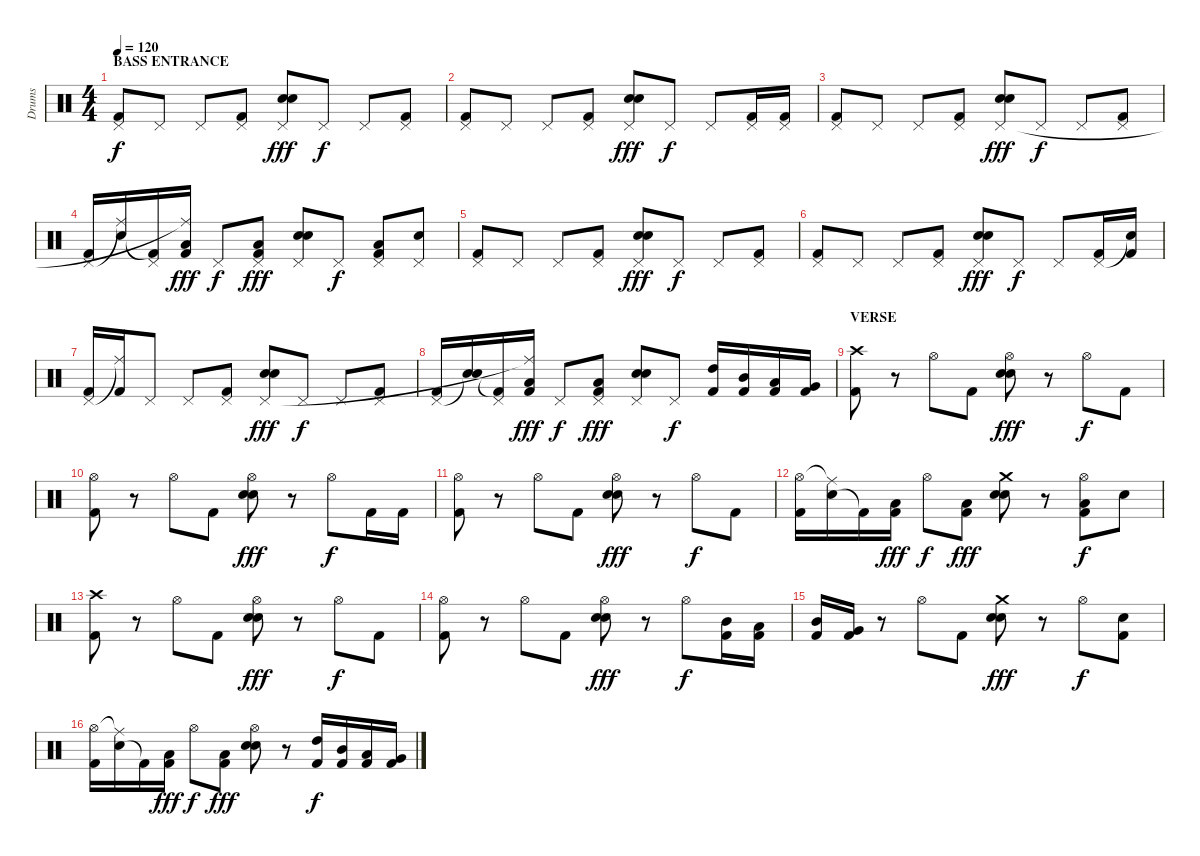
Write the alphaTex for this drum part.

\track ("Drums" "Drums") {instrument percussion}
\staff {score}
\articulation defaults
\ts (4 4)
\section ("" "BASS ENTRANCE")
\tempo 120
\clef neutral
\ks c
("Kick (hit) 2" "Pedal Hi-Hat (hit)").8{dy f} "Pedal Hi-Hat (hit)".8 "Pedal Hi-Hat (hit)".8 ("Kick (hit) 2" "Pedal Hi-Hat (hit)").8 ("Electric Snare (hit)" "Electric Snare (hit)" "Pedal Hi-Hat (hit)").8{dy fff} "Pedal Hi-Hat (hit)".8{dy f} "Pedal Hi-Hat (hit)".8 ("Kick (hit) 2" "Pedal Hi-Hat (hit)").8 |
("Kick (hit) 2" "Pedal Hi-Hat (hit)").8 "Pedal Hi-Hat (hit)".8 "Pedal Hi-Hat (hit)".8 ("Kick (hit) 2" "Pedal Hi-Hat (hit)").8 ("Electric Snare (hit)" "Electric Snare (hit)" "Pedal Hi-Hat (hit)").8{dy fff} "Pedal Hi-Hat (hit)".8{dy f} "Pedal Hi-Hat (hit)".8 ("Kick (hit) 2" "Pedal Hi-Hat (hit)").16 ("Kick (hit) 2" "Pedal Hi-Hat (hit)").16 |
("Kick (hit) 2" "Pedal Hi-Hat (hit)").8 "Pedal Hi-Hat (hit)".8 "Pedal Hi-Hat (hit)".8 ("Kick (hit) 2" "Pedal Hi-Hat (hit)").8 ("Electric Snare (hit)" "Electric Snare (hit)" "Pedal Hi-Hat (hit)").8{dy fff} "Pedal Hi-Hat (hit)".8{dy f} "Pedal Hi-Hat (hit)".8 ("Kick (hit) 2" "Pedal Hi-Hat (hit)").8 |
("Kick (hit) 2" "Pedal Hi-Hat (hit)").16 ("Electric Snare (hit)" "Ride (middle)"{t}).16 ("Kick (hit) 2"{t} "Pedal Hi-Hat (hit)").16 ("Low Floor Tom (hit)" "Kick (hit) 2" "Ride (middle)"{t}).16{dy fff} "Pedal Hi-Hat (hit)".8{dy f} ("Low Floor Tom (hit)" "Kick (hit) 2" "Pedal Hi-Hat (hit)").8{dy fff} ("Electric Snare (hit)" "Electric Snare (hit)" "Pedal Hi-Hat (hit)").8 "Pedal Hi-Hat (hit)".8{dy f} ("Low Floor Tom (hit)" "Kick (hit) 2" "Pedal Hi-Hat (hit)").8 ("Electric Snare (hit)" "Pedal Hi-Hat (hit)").8 |
("Kick (hit) 2" "Pedal Hi-Hat (hit)").8 "Pedal Hi-Hat (hit)".8 "Pedal Hi-Hat (hit)".8 ("Kick (hit) 2" "Pedal Hi-Hat (hit)").8 ("Electric Snare (hit)" "Electric Snare (hit)" "Pedal Hi-Hat (hit)").8{dy fff} "Pedal Hi-Hat (hit)".8{dy f} "Pedal Hi-Hat (hit)".8 ("Kick (hit) 2" "Pedal Hi-Hat (hit)").8 |
("Kick (hit) 2" "Pedal Hi-Hat (hit)").8 "Pedal Hi-Hat (hit)".8 "Pedal Hi-Hat (hit)".8 ("Kick (hit) 2" "Pedal Hi-Hat (hit)").8 ("Electric Snare (hit)" "Electric Snare (hit)" "Pedal Hi-Hat (hit)").8{dy fff} "Pedal Hi-Hat (hit)".8{dy f} "Pedal Hi-Hat (hit)".8 ("Kick (hit) 2" "Pedal Hi-Hat (hit)").16 ("Kick (hit) 2" "Snare (hit)"{t}).16 |
("Kick (hit) 2" "Pedal Hi-Hat (hit)").16 ("Kick (hit) 2" "Ride (middle)"{t}).16 "Pedal Hi-Hat (hit)".8 "Pedal Hi-Hat (hit)".8 ("Kick (hit) 2" "Pedal Hi-Hat (hit)").8 ("Electric Snare (hit)" "Electric Snare (hit)" "Pedal Hi-Hat (hit)").8{dy fff} "Pedal Hi-Hat (hit)".8{dy f} "Pedal Hi-Hat (hit)".8 ("Kick (hit) 2" "Pedal Hi-Hat (hit)").8 |
("Kick (hit) 2" "Pedal Hi-Hat (hit)").16 ("Electric Snare (hit)" "Snare (hit)"{t}).16 ("Kick (hit) 2"{t} "Pedal Hi-Hat (hit)").16 ("Low Floor Tom (hit)" "Kick (hit) 2" "Ride (middle)"{t}).16{dy fff} "Pedal Hi-Hat (hit)".8{dy f} ("Low Floor Tom (hit)" "Kick (hit) 2" "Pedal Hi-Hat (hit)").8{dy fff} ("Electric Snare (hit)" "Electric Snare (hit)" "Pedal Hi-Hat (hit)").8 "Pedal Hi-Hat (hit)".8{dy f} ("High Tom (hit)" "Kick (hit) 2").16 ("Mid Tom (hit)" "Kick (hit) 2").16 ("Low Tom (hit)" "Kick (hit) 2").16 ("Very Low Tom (hit)" "Kick (hit) 2").16 |
\section ("" "VERSE")
("Kick (hit) 2" "Crash high (hit)").8 r.8 "Hi-Hat (open)".8 "Kick (hit) 2".8 ("Electric Snare (hit)" "Electric Snare (hit)" "Hi-Hat (open)").8{dy fff} r.8 "Hi-Hat (open)".8{dy f} "Kick (hit) 2".8 |
("Kick (hit) 2" "Hi-Hat (open)").8 r.8 "Hi-Hat (open)".8 "Kick (hit) 2".8 ("Electric Snare (hit)" "Electric Snare (hit)" "Hi-Hat (open)").8{dy fff} r.8 "Hi-Hat (open)".8{dy f} "Kick (hit) 2".16 "Kick (hit) 2".16 |
("Kick (hit) 2" "Hi-Hat (open)").8 r.8 "Hi-Hat (open)".8 "Kick (hit) 2".8 ("Electric Snare (hit)" "Electric Snare (hit)" "Hi-Hat (open)").8{dy fff} r.8 "Hi-Hat (open)".8{dy f} "Kick (hit) 2".8 |
("Kick (hit) 2" "Hi-Hat (open)").16 ("Electric Snare (hit)" "Ride (middle)"{t}).16 "Kick (hit) 2"{t}.16 ("Low Floor Tom (hit)" "Kick (hit) 2").16{dy fff} "Hi-Hat (open)".8{dy f} ("Low Floor Tom (hit)" "Kick (hit) 2").8{dy fff} ("Electric Snare (hit)" "Electric Snare (hit)" "Crash medium (hit)").8 r.8 ("Low Floor Tom (hit)" "Kick (hit) 2" "Hi-Hat (open)").8{dy f} "Electric Snare (hit)".8 |
("Kick (hit) 2" "Crash high (hit)").8 r.8 "Hi-Hat (open)".8 "Kick (hit) 2".8 ("Electric Snare (hit)" "Electric Snare (hit)" "Hi-Hat (open)").8{dy fff} r.8 "Hi-Hat (open)".8{dy f} "Kick (hit) 2".8 |
("Kick (hit) 2" "Hi-Hat (open)").8 r.8 "Hi-Hat (open)".8 "Kick (hit) 2".8 ("Electric Snare (hit)" "Electric Snare (hit)" "Hi-Hat (open)").8{dy fff} r.8 "Hi-Hat (open)".8{dy f} ("Mid Tom (hit)" "Kick (hit) 2").16 ("Low Tom (hit)" "Kick (hit) 2").16 |
("Mid Tom (hit)" "Kick (hit) 2").16 ("Very Low Tom (hit)" "Kick (hit) 2").16 r.8 "Hi-Hat (open)".8 "Kick (hit) 2".8 ("Electric Snare (hit)" "Electric Snare (hit)" "Crash medium (hit)").8{dy fff} r.8 "Hi-Hat (open)".8{dy f} ("Electric Snare (hit)" "Kick (hit) 2").8 |
("Kick (hit) 2" "Hi-Hat (open)").16 ("Electric Snare (hit)" "Ride (middle)"{t}).16 "Kick (hit) 2"{t}.16 ("Low Floor Tom (hit)" "Kick (hit) 2").16{dy fff} "Hi-Hat (open)".8{dy f} ("Low Floor Tom (hit)" "Kick (hit) 2").8{dy fff} ("Electric Snare (hit)" "Electric Snare (hit)" "Hi-Hat (open)").8 r.8 ("High Tom (hit)" "Kick (hit) 2").16{dy f} ("Mid Tom (hit)" "Kick (hit) 2").16 ("Low Tom (hit)" "Kick (hit) 2").16 ("Very Low Tom (hit)" "Kick (hit) 2").16
